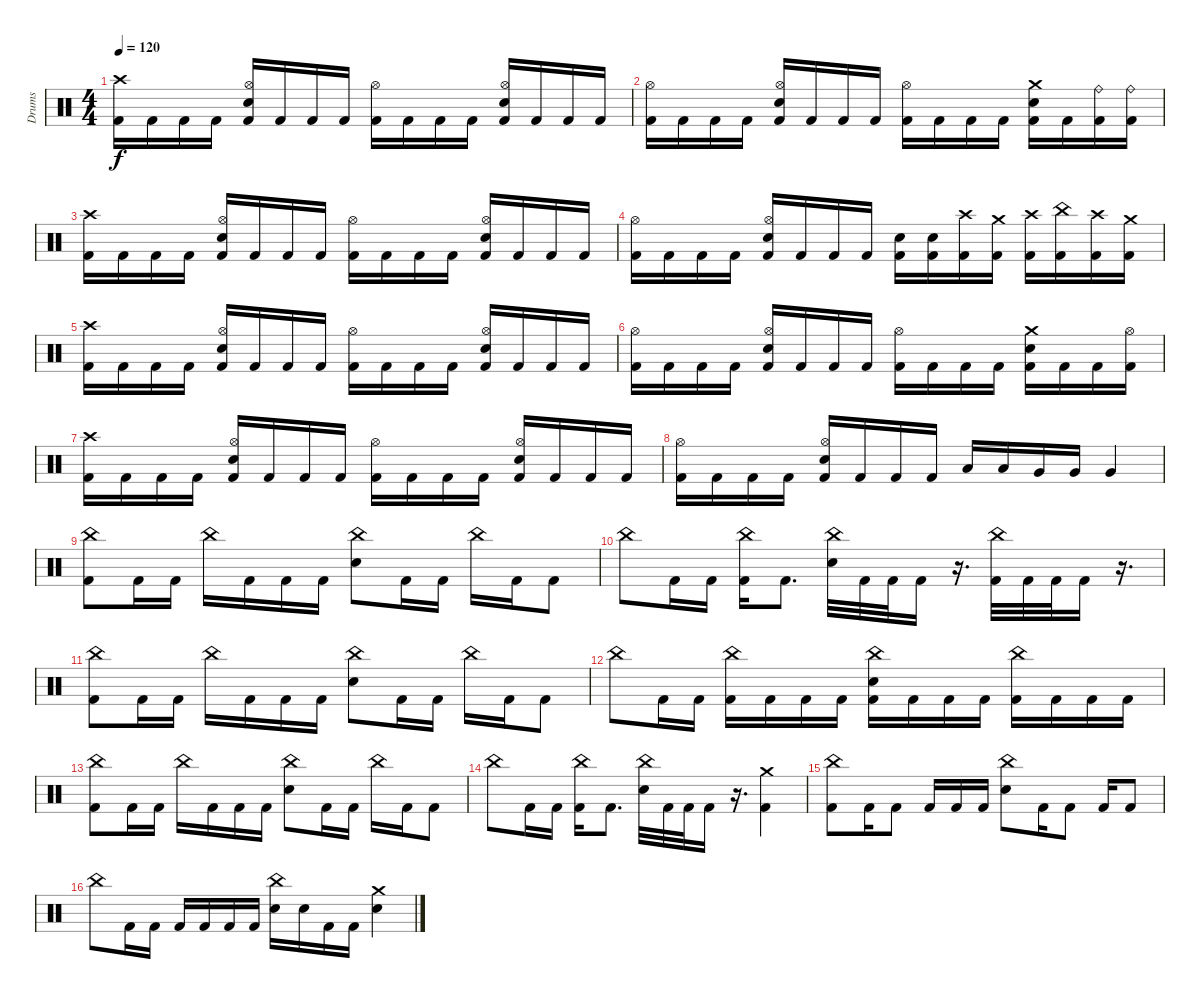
\track ("Drums" "Drums") {instrument percussion}
\staff {score}
\articulation defaults
\ts (4 4)
\tempo 120
\clef neutral
\ks c
("Crash high (hit)" "Kick (hit) 2").16{dy f volume 16} "Kick (hit) 2".16 "Kick (hit) 2".16 "Kick (hit) 2".16 ("Hi-Hat (open)" "Electric Snare (hit)" "Kick (hit) 2").16 "Kick (hit) 2".16 "Kick (hit) 2".16 "Kick (hit) 2".16 ("Hi-Hat (open)" "Kick (hit) 2").16 "Kick (hit) 2".16 "Kick (hit) 2".16 "Kick (hit) 2".16 ("Hi-Hat (open)" "Electric Snare (hit)" "Kick (hit) 2").16 "Kick (hit) 2".16 "Kick (hit) 2".16 "Kick (hit) 2".16 |
("Hi-Hat (open)" "Kick (hit) 2").16 "Kick (hit) 2".16 "Kick (hit) 2".16 "Kick (hit) 2".16 ("Hi-Hat (open)" "Electric Snare (hit)" "Kick (hit) 2").16 "Kick (hit) 2".16 "Kick (hit) 2".16 "Kick (hit) 2".16 ("Hi-Hat (open)" "Kick (hit) 2").16 "Kick (hit) 2".16 "Kick (hit) 2".16 "Kick (hit) 2".16 ("Crash medium (hit)" "Electric Snare (hit)" "Kick (hit) 2").16 "Kick (hit) 2".16 ("Ride (bell)" "Kick (hit) 2").16 ("Ride (bell)" "Kick (hit) 2").16 |
("Crash high (hit)" "Kick (hit) 2").16 "Kick (hit) 2".16 "Kick (hit) 2".16 "Kick (hit) 2".16 ("Hi-Hat (open)" "Electric Snare (hit)" "Kick (hit) 2").16 "Kick (hit) 2".16 "Kick (hit) 2".16 "Kick (hit) 2".16 ("Hi-Hat (open)" "Kick (hit) 2").16 "Kick (hit) 2".16 "Kick (hit) 2".16 "Kick (hit) 2".16 ("Hi-Hat (open)" "Electric Snare (hit)" "Kick (hit) 2").16 "Kick (hit) 2".16 "Kick (hit) 2".16 "Kick (hit) 2".16 |
("Hi-Hat (open)" "Kick (hit) 2").16 "Kick (hit) 2".16 "Kick (hit) 2".16 "Kick (hit) 2".16 ("Hi-Hat (open)" "Electric Snare (hit)" "Kick (hit) 2").16 "Kick (hit) 2".16 "Kick (hit) 2".16 "Kick (hit) 2".16 ("Electric Snare (hit)" "Kick (hit) 2").16 ("Electric Snare (hit)" "Kick (hit) 2").16 ("Crash high (hit)" "Kick (hit) 2").16 ("Crash medium (hit)" "Kick (hit) 2").16 ("Crash high (hit)" "Kick (hit) 2").16 ("China (hit)" "Kick (hit) 2").16 ("Crash high (hit)" "Kick (hit) 2").16 ("Crash medium (hit)" "Kick (hit) 2").16 |
("Crash high (hit)" "Kick (hit) 2").16 "Kick (hit) 2".16 "Kick (hit) 2".16 "Kick (hit) 2".16 ("Hi-Hat (open)" "Electric Snare (hit)" "Kick (hit) 2").16 "Kick (hit) 2".16 "Kick (hit) 2".16 "Kick (hit) 2".16 ("Hi-Hat (open)" "Kick (hit) 2").16 "Kick (hit) 2".16 "Kick (hit) 2".16 "Kick (hit) 2".16 ("Hi-Hat (open)" "Electric Snare (hit)" "Kick (hit) 2").16 "Kick (hit) 2".16 "Kick (hit) 2".16 "Kick (hit) 2".16 |
("Hi-Hat (open)" "Kick (hit) 2").16 "Kick (hit) 2".16 "Kick (hit) 2".16 "Kick (hit) 2".16 ("Hi-Hat (open)" "Electric Snare (hit)" "Kick (hit) 2").16 "Kick (hit) 2".16 "Kick (hit) 2".16 "Kick (hit) 2".16 ("Hi-Hat (open)" "Kick (hit) 2").16 "Kick (hit) 2".16 "Kick (hit) 2".16 "Kick (hit) 2".16 ("Crash medium (hit)" "Electric Snare (hit)" "Kick (hit) 2").16 "Kick (hit) 2".16 "Kick (hit) 2".16 ("Hi-Hat (open)" "Kick (hit) 2").16 |
("Crash high (hit)" "Kick (hit) 2").16 "Kick (hit) 2".16 "Kick (hit) 2".16 "Kick (hit) 2".16 ("Hi-Hat (open)" "Electric Snare (hit)" "Kick (hit) 2").16 "Kick (hit) 2".16 "Kick (hit) 2".16 "Kick (hit) 2".16 ("Hi-Hat (open)" "Kick (hit) 2").16 "Kick (hit) 2".16 "Kick (hit) 2".16 "Kick (hit) 2".16 ("Hi-Hat (open)" "Electric Snare (hit)" "Kick (hit) 2").16 "Kick (hit) 2".16 "Kick (hit) 2".16 "Kick (hit) 2".16 |
("Hi-Hat (open)" "Kick (hit) 2").16 "Kick (hit) 2".16 "Kick (hit) 2".16 "Kick (hit) 2".16 ("Hi-Hat (open)" "Electric Snare (hit)" "Kick (hit) 2").16 "Kick (hit) 2".16 "Kick (hit) 2".16 "Kick (hit) 2".16 "Low Tom (hit)".16 "Low Tom (hit)".16 "Very Low Tom (hit)".16 "Very Low Tom (hit)".16 "Very Low Tom (hit)".4 |
("China (hit)" "Kick (hit) 2").8 "Kick (hit) 2".16 "Kick (hit) 2".16 "China (hit)".16 "Kick (hit) 2".16 "Kick (hit) 2".16 "Kick (hit) 2".16 ("China (hit)" "Electric Snare (hit)").8 "Kick (hit) 2".16 "Kick (hit) 2".16 "China (hit)".16 "Kick (hit) 2".16 "Kick (hit) 2".8 |
"China (hit)".8 "Kick (hit) 2".16 "Kick (hit) 2".16 ("China (hit)" "Kick (hit) 2").16 "Kick (hit) 2".8{d} ("China (hit)" "Electric Snare (hit)").32 "Kick (hit) 2".32 "Kick (hit) 2".32 "Kick (hit) 2".16 r.16{d} ("China (hit)" "Kick (hit) 2").32 "Kick (hit) 2".32 "Kick (hit) 2".32 "Kick (hit) 2".16 r.16{d} |
("China (hit)" "Kick (hit) 2").8 "Kick (hit) 2".16 "Kick (hit) 2".16 "China (hit)".16 "Kick (hit) 2".16 "Kick (hit) 2".16 "Kick (hit) 2".16 ("China (hit)" "Electric Snare (hit)").8 "Kick (hit) 2".16 "Kick (hit) 2".16 "China (hit)".16 "Kick (hit) 2".16 "Kick (hit) 2".8 |
"China (hit)".8 "Kick (hit) 2".16 "Kick (hit) 2".16 ("China (hit)" "Kick (hit) 2").16 "Kick (hit) 2".16 "Kick (hit) 2".16 "Kick (hit) 2".16 ("China (hit)" "Electric Snare (hit)" "Kick (hit) 2").16 "Kick (hit) 2".16 "Kick (hit) 2".16 "Kick (hit) 2".16 ("China (hit)" "Kick (hit) 2").16 "Kick (hit) 2".16 "Kick (hit) 2".16 "Kick (hit) 2".16 |
("China (hit)" "Kick (hit) 2").8 "Kick (hit) 2".16 "Kick (hit) 2".16 "China (hit)".16 "Kick (hit) 2".16 "Kick (hit) 2".16 "Kick (hit) 2".16 ("China (hit)" "Electric Snare (hit)").8 "Kick (hit) 2".16 "Kick (hit) 2".16 "China (hit)".16 "Kick (hit) 2".16 "Kick (hit) 2".8 |
"China (hit)".8 "Kick (hit) 2".16 "Kick (hit) 2".16 ("China (hit)" "Kick (hit) 2").16 "Kick (hit) 2".8{d} ("China (hit)" "Electric Snare (hit)").32 "Kick (hit) 2".32 "Kick (hit) 2".32 "Kick (hit) 2".16 r.16{d} ("Crash medium (hit)" "Kick (hit) 2").4 |
("China (hit)" "Kick (hit) 2").8 "Kick (hit) 2".16 "Kick (hit) 2".8 "Kick (hit) 2".16 "Kick (hit) 2".16 "Kick (hit) 2".16 ("China (hit)" "Electric Snare (hit)").8 "Kick (hit) 2".16 "Kick (hit) 2".8 "Kick (hit) 2".16 "Kick (hit) 2".8 |
"China (hit)".8 "Kick (hit) 2".16 "Kick (hit) 2".16 "Kick (hit) 2".16 "Kick (hit) 2".16 "Kick (hit) 2".16 "Kick (hit) 2".16 ("China (hit)" "Electric Snare (hit)").16 "Electric Snare (hit)".16 "Kick (hit) 2".16 "Kick (hit) 2".16 ("Crash medium (hit)" "Electric Snare (hit)").4
